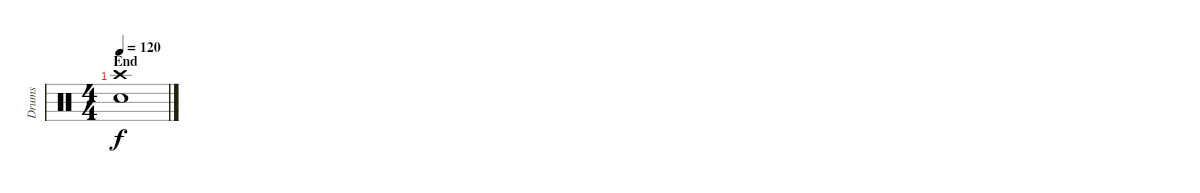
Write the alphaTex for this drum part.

\track ("Drums" "Drums") {instrument percussion}
\staff {score}
\articulation defaults
\ts (4 4)
\section ("" "End")
\tempo 120
\clef neutral
\ks c
("Electric Snare (hit)" "Crash high (hit)").1{dy f}
